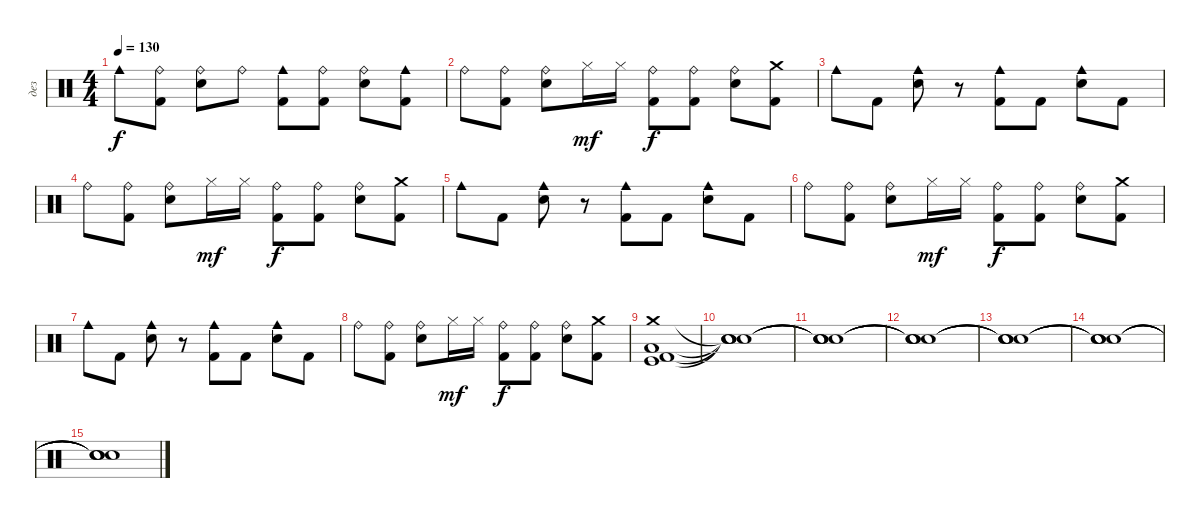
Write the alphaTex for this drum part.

\track ("дез" "дез") {instrument percussion}
\staff {score}
\articulation defaults
\ts (4 4)
\tempo 130
\clef neutral
\ks c "Cowbell medium (hit)".8{dy f}
("Kick (hit) 2" "Ride (bell)").8 ("Electric Snare (hit)" "Ride (bell)").8 "Ride (bell)".8 ("Kick (hit) 2" "Cowbell medium (hit)").8 ("Kick (hit) 2" "Ride (bell)").8 ("Electric Snare (hit)" "Ride (bell)").8 ("Kick (hit) 2" "Cowbell medium (hit)").8 |
"Ride (bell)".8 ("Kick (hit) 2" "Ride (bell)").8 ("Electric Snare (hit)" "Ride (bell)").8 "Hi-Hat (closed)".16{dy mf} "Hi-Hat (closed)".16 ("Kick (hit) 2" "Ride (bell)").8{dy f} ("Kick (hit) 2" "Ride (bell)").8 ("Electric Snare (hit)" "Ride (bell)").8 ("Kick (hit) 2" "Crash medium (hit)").8 |
"Cowbell medium (hit)".8 "Kick (hit) 2".8 ("Electric Snare (hit)" "Cowbell medium (hit)").8 r.8 ("Kick (hit) 2" "Cowbell medium (hit)").8 "Kick (hit) 2".8 ("Electric Snare (hit)" "Cowbell medium (hit)").8 "Kick (hit) 2".8 |
"Ride (bell)".8 ("Kick (hit) 2" "Ride (bell)").8 ("Electric Snare (hit)" "Ride (bell)").8 "Hi-Hat (closed)".16{dy mf} "Hi-Hat (closed)".16 ("Kick (hit) 2" "Ride (bell)").8{dy f} ("Kick (hit) 2" "Ride (bell)").8 ("Electric Snare (hit)" "Ride (bell)").8 ("Kick (hit) 2" "Crash medium (hit)").8 |
"Cowbell medium (hit)".8 "Kick (hit) 2".8 ("Electric Snare (hit)" "Cowbell medium (hit)").8 r.8 ("Kick (hit) 2" "Cowbell medium (hit)").8 "Kick (hit) 2".8 ("Electric Snare (hit)" "Cowbell medium (hit)").8 "Kick (hit) 2".8 |
"Ride (bell)".8 ("Kick (hit) 2" "Ride (bell)").8 ("Electric Snare (hit)" "Ride (bell)").8 "Hi-Hat (closed)".16{dy mf} "Hi-Hat (closed)".16 ("Kick (hit) 2" "Ride (bell)").8{dy f} ("Kick (hit) 2" "Ride (bell)").8 ("Electric Snare (hit)" "Ride (bell)").8 ("Kick (hit) 2" "Crash medium (hit)").8 |
"Cowbell medium (hit)".8 "Kick (hit) 2".8 ("Electric Snare (hit)" "Cowbell medium (hit)").8 r.8 ("Kick (hit) 2" "Cowbell medium (hit)").8 "Kick (hit) 2".8 ("Electric Snare (hit)" "Cowbell medium (hit)").8 "Kick (hit) 2".8 |
"Ride (bell)".8 ("Kick (hit) 2" "Ride (bell)").8 ("Electric Snare (hit)" "Ride (bell)").8 "Hi-Hat (closed)".16{dy mf} "Hi-Hat (closed)".16 ("Kick (hit) 2" "Ride (bell)").8{dy f} ("Kick (hit) 2" "Ride (bell)").8 ("Electric Snare (hit)" "Ride (bell)").8 ("Kick (hit) 2" "Crash medium (hit)").8 |
("Kick (hit)" "Kick (hit) 2" "Low Tom (hit)" "Crash medium (hit)").1 |
("Snare (hit)"{t} "Snare (hit)"{t} "Snare (hit)"{t} "Snare (hit)"{t}).1 |
("Snare (hit)"{t} "Snare (hit)"{t} "Snare (hit)"{t} "Snare (hit)"{t}).1 |
("Snare (hit)"{t} "Snare (hit)"{t} "Snare (hit)"{t} "Snare (hit)"{t}).1 |
("Snare (hit)"{t} "Snare (hit)"{t} "Snare (hit)"{t} "Snare (hit)"{t}).1 |
("Snare (hit)"{t} "Snare (hit)"{t} "Snare (hit)"{t} "Snare (hit)"{t}).1 |
("Snare (hit)"{t} "Snare (hit)"{t} "Snare (hit)"{t} "Snare (hit)"{t}).1
